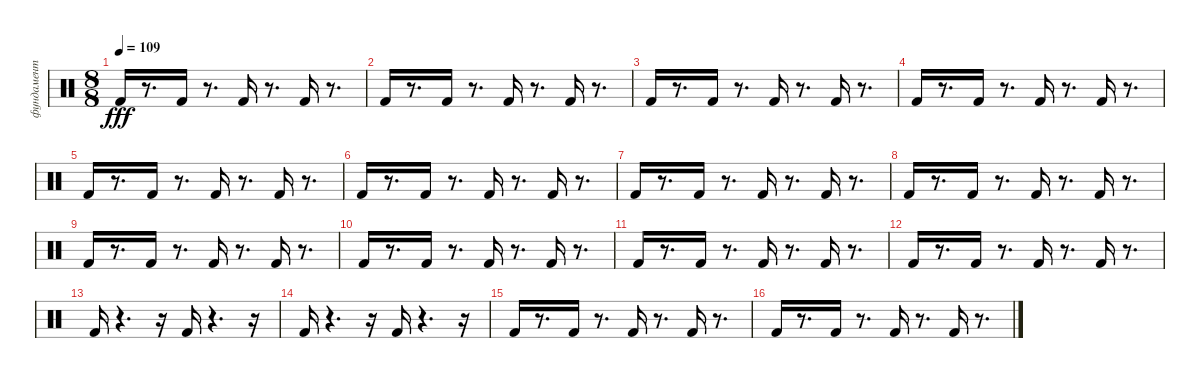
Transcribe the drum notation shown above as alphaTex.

\track ("фундамент" "фундамент") {instrument percussion}
\staff {score}
\articulation defaults
\ts (8 8)
\tempo 109
\clef neutral
\ks c "Kick (hit) 2".16{dy fff}
r.8{d} "Kick (hit) 2".16 r.8{d} "Kick (hit) 2".16 r.8{d} "Kick (hit) 2".16 r.8{d} |
"Kick (hit) 2".16 r.8{d} "Kick (hit) 2".16 r.8{d} "Kick (hit) 2".16 r.8{d} "Kick (hit) 2".16 r.8{d} |
"Kick (hit) 2".16 r.8{d} "Kick (hit) 2".16 r.8{d} "Kick (hit) 2".16 r.8{d} "Kick (hit) 2".16 r.8{d} |
"Kick (hit) 2".16 r.8{d} "Kick (hit) 2".16 r.8{d} "Kick (hit) 2".16 r.8{d} "Kick (hit) 2".16 r.8{d} |
"Kick (hit) 2".16 r.8{d} "Kick (hit) 2".16 r.8{d} "Kick (hit) 2".16 r.8{d} "Kick (hit) 2".16 r.8{d} |
"Kick (hit) 2".16 r.8{d} "Kick (hit) 2".16 r.8{d} "Kick (hit) 2".16 r.8{d} "Kick (hit) 2".16 r.8{d} |
"Kick (hit) 2".16 r.8{d} "Kick (hit) 2".16 r.8{d} "Kick (hit) 2".16 r.8{d} "Kick (hit) 2".16 r.8{d} |
"Kick (hit) 2".16 r.8{d} "Kick (hit) 2".16 r.8{d} "Kick (hit) 2".16 r.8{d} "Kick (hit) 2".16 r.8{d} |
"Kick (hit) 2".16 r.8{d} "Kick (hit) 2".16 r.8{d} "Kick (hit) 2".16 r.8{d} "Kick (hit) 2".16 r.8{d} |
"Kick (hit) 2".16 r.8{d} "Kick (hit) 2".16 r.8{d} "Kick (hit) 2".16 r.8{d} "Kick (hit) 2".16 r.8{d} |
"Kick (hit) 2".16 r.8{d} "Kick (hit) 2".16 r.8{d} "Kick (hit) 2".16 r.8{d} "Kick (hit) 2".16 r.8{d} |
"Kick (hit) 2".16 r.8{d} "Kick (hit) 2".16 r.8{d} "Kick (hit) 2".16 r.8{d} "Kick (hit) 2".16 r.8{d} |
"Kick (hit) 2".16 r.4{d} r.16 "Kick (hit) 2".16 r.4{d} r.16 |
"Kick (hit) 2".16 r.4{d} r.16 "Kick (hit) 2".16 r.4{d} r.16 |
"Kick (hit) 2".16 r.8{d} "Kick (hit) 2".16 r.8{d} "Kick (hit) 2".16 r.8{d} "Kick (hit) 2".16 r.8{d} |
"Kick (hit) 2".16 r.8{d} "Kick (hit) 2".16 r.8{d} "Kick (hit) 2".16 r.8{d} "Kick (hit) 2".16 r.8{d}
